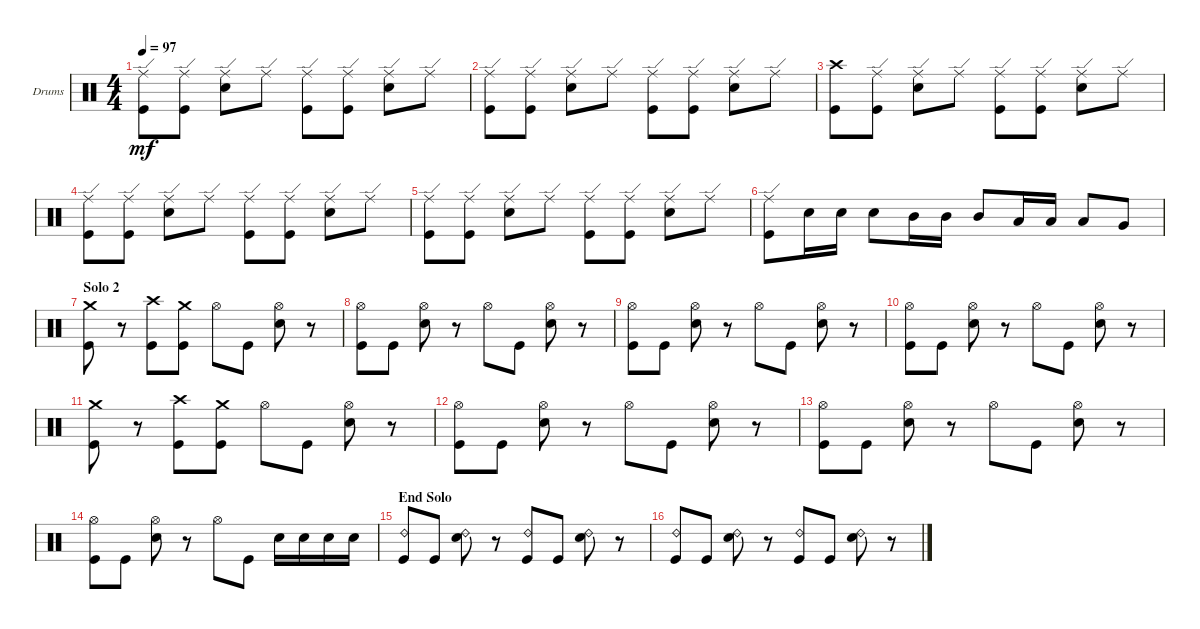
\bracketExtendMode groupsimilarinstruments
\firstSystemTrackNameOrientation horizontal
\otherSystemsTrackNameOrientation horizontal
\track ("Drumkit" "Drums") {instrument percussion}
\staff {score}
\articulation defaults
\ts (4 4)
\tempo 97
\clef neutral
\ks c
("Ride (edge)" "Kick (hit)").8{dy mf} ("Ride (edge)" "Kick (hit)").8 ("Ride (edge)" "Snare (hit) 2").8 "Ride (edge)".8 ("Ride (edge)" "Kick (hit)").8 ("Ride (edge)" "Kick (hit)").8 ("Ride (edge)" "Snare (hit) 2").8 "Ride (edge)".8 |
("Ride (edge)" "Kick (hit)").8 ("Ride (edge)" "Kick (hit)").8 ("Ride (edge)" "Snare (hit) 2").8 "Ride (edge)".8 ("Ride (edge)" "Kick (hit)").8 ("Ride (edge)" "Kick (hit)").8 ("Ride (edge)" "Snare (hit) 2").8 "Ride (edge)".8 |
("Crash high (hit)" "Kick (hit)").8 ("Ride (edge)" "Kick (hit)").8 ("Ride (edge)" "Snare (hit) 2").8 "Ride (edge)".8 ("Ride (edge)" "Kick (hit)").8 ("Ride (edge)" "Kick (hit)").8 ("Ride (edge)" "Snare (hit) 2").8 "Ride (edge)".8 |
("Ride (edge)" "Kick (hit)").8 ("Ride (edge)" "Kick (hit)").8 ("Ride (edge)" "Snare (hit) 2").8 "Ride (edge)".8 ("Ride (edge)" "Kick (hit)").8 ("Ride (edge)" "Kick (hit)").8 ("Ride (edge)" "Snare (hit) 2").8 "Ride (edge)".8 |
("Ride (edge)" "Kick (hit)").8 ("Ride (edge)" "Kick (hit)").8 ("Ride (edge)" "Snare (hit) 2").8 "Ride (edge)".8 ("Ride (edge)" "Kick (hit)").8 ("Ride (edge)" "Kick (hit)").8 ("Ride (edge)" "Snare (hit) 2").8 "Ride (edge)".8 |
("Ride (edge)" "Kick (hit)").8 "Snare (hit) 2".16 "Snare (hit) 2".16 "Snare (hit) 2".8 "Mid Tom (hit)".16 "Mid Tom (hit)".16 "Mid Tom (hit)".8 "Low Tom (hit)".16 "Low Tom (hit)".16 "Low Tom (hit)".8 "Very Low Tom (hit)".8 |
\section ("" "Solo 2")
("Crash medium (hit)" "Kick (hit)").8 r.8 ("Crash high (hit)" "Kick (hit)").8 ("Crash medium (hit)" "Kick (hit)").8 "Hi-Hat (open)".8 "Kick (hit)".8 ("Hi-Hat (open)" "Snare (hit) 2").8 r.8 |
("Hi-Hat (open)" "Kick (hit)").8 "Kick (hit)".8 ("Hi-Hat (open)" "Snare (hit) 2").8 r.8 "Hi-Hat (open)".8 "Kick (hit)".8 ("Hi-Hat (open)" "Snare (hit) 2").8 r.8 |
("Hi-Hat (open)" "Kick (hit)").8 "Kick (hit)".8 ("Hi-Hat (open)" "Snare (hit) 2").8 r.8 "Hi-Hat (open)".8 "Kick (hit)".8 ("Hi-Hat (open)" "Snare (hit) 2").8 r.8 |
("Hi-Hat (open)" "Kick (hit)").8 "Kick (hit)".8 ("Hi-Hat (open)" "Snare (hit) 2").8 r.8 "Hi-Hat (open)".8 "Kick (hit)".8 ("Hi-Hat (open)" "Snare (hit) 2").8 r.8 |
("Crash medium (hit)" "Kick (hit)").8 r.8 ("Crash high (hit)" "Kick (hit)").8 ("Crash medium (hit)" "Kick (hit)").8 "Hi-Hat (open)".8 "Kick (hit)".8 ("Hi-Hat (open)" "Snare (hit) 2").8 r.8 |
("Hi-Hat (open)" "Kick (hit)").8 "Kick (hit)".8 ("Hi-Hat (open)" "Snare (hit) 2").8 r.8 "Hi-Hat (open)".8 "Kick (hit)".8 ("Hi-Hat (open)" "Snare (hit) 2").8 r.8 |
("Hi-Hat (open)" "Kick (hit)").8 "Kick (hit)".8 ("Hi-Hat (open)" "Snare (hit) 2").8 r.8 "Hi-Hat (open)".8 "Kick (hit)".8 ("Hi-Hat (open)" "Snare (hit) 2").8 r.8 |
("Hi-Hat (open)" "Kick (hit)").8 "Kick (hit)".8 ("Hi-Hat (open)" "Snare (hit) 2").8 r.8 "Hi-Hat (open)".8 "Kick (hit)".8 "Snare (hit) 2".16 "Snare (hit) 2".16 "Snare (hit) 2".16 "Snare (hit) 2".16 |
\section ("" "End Solo")
("Ride (bell) 2" "Kick (hit)").8 "Kick (hit)".8 ("Ride (bell) 2" "Snare (hit) 2").8 r.8 ("Ride (bell) 2" "Kick (hit)").8 "Kick (hit)".8 ("Ride (bell) 2" "Snare (hit) 2").8 r.8 |
("Ride (bell) 2" "Kick (hit)").8 "Kick (hit)".8 ("Ride (bell) 2" "Snare (hit) 2").8 r.8 ("Ride (bell) 2" "Kick (hit)").8 "Kick (hit)".8 ("Ride (bell) 2" "Snare (hit) 2").8 r.8
